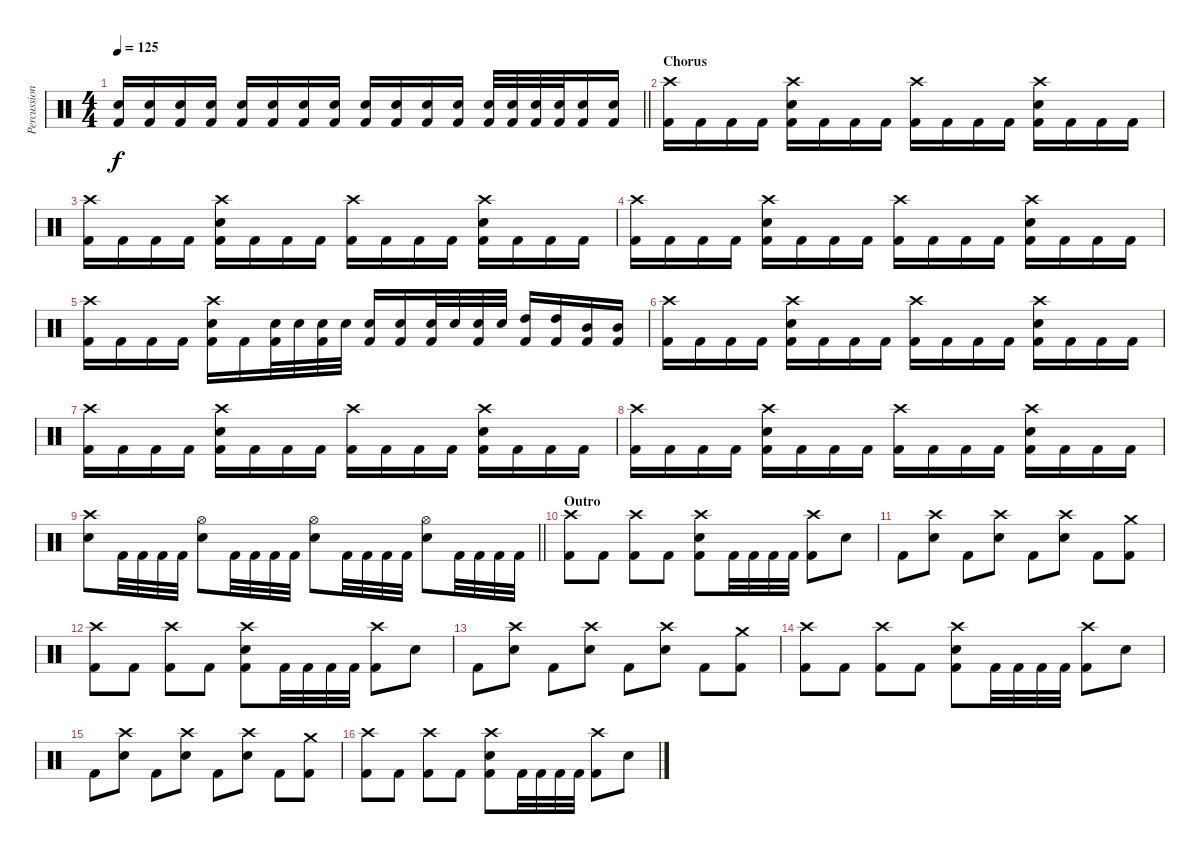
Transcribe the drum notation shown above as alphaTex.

\track ("Percussion" "Percussion") {mute instrument percussion}
\staff {score}
\articulation defaults
\ts (4 4)
\tempo 125
\clef neutral
\barLineRight lightlight
\ks c
("Electric Snare (hit)" "Kick (hit) 2").16{dy f volume 8} ("Electric Snare (hit)" "Kick (hit) 2").16{volume 16} ("Electric Snare (hit)" "Kick (hit) 2").16 ("Electric Snare (hit)" "Kick (hit) 2").16 ("Electric Snare (hit)" "Kick (hit) 2").16 ("Electric Snare (hit)" "Kick (hit) 2").16 ("Electric Snare (hit)" "Kick (hit) 2").16 ("Electric Snare (hit)" "Kick (hit) 2").16 ("Electric Snare (hit)" "Kick (hit) 2").16 ("Electric Snare (hit)" "Kick (hit) 2").16 ("Electric Snare (hit)" "Kick (hit) 2").16 ("Electric Snare (hit)" "Kick (hit) 2").16 ("Electric Snare (hit)" "Kick (hit) 2").32 ("Electric Snare (hit)" "Kick (hit) 2").32 ("Electric Snare (hit)" "Kick (hit) 2").32 ("Electric Snare (hit)" "Kick (hit) 2").32 ("Electric Snare (hit)" "Kick (hit) 2").16 ("Electric Snare (hit)" "Kick (hit) 2").16 |
\section ("" "Chorus")
("Crash high (hit)" "Kick (hit) 2").16{volume 13} "Kick (hit) 2".16 "Kick (hit) 2".16 "Kick (hit) 2".16 ("Crash high (hit)" "Electric Snare (hit)" "Kick (hit) 2").16 "Kick (hit) 2".16 "Kick (hit) 2".16 "Kick (hit) 2".16 ("Crash high (hit)" "Kick (hit) 2").16 "Kick (hit) 2".16 "Kick (hit) 2".16 "Kick (hit) 2".16 ("Crash high (hit)" "Electric Snare (hit)" "Kick (hit) 2").16 "Kick (hit) 2".16 "Kick (hit) 2".16 "Kick (hit) 2".16 |
("Crash high (hit)" "Kick (hit) 2").16 "Kick (hit) 2".16 "Kick (hit) 2".16 "Kick (hit) 2".16 ("Crash high (hit)" "Electric Snare (hit)" "Kick (hit) 2").16 "Kick (hit) 2".16 "Kick (hit) 2".16 "Kick (hit) 2".16 ("Crash high (hit)" "Kick (hit) 2").16 "Kick (hit) 2".16 "Kick (hit) 2".16 "Kick (hit) 2".16 ("Crash high (hit)" "Electric Snare (hit)" "Kick (hit) 2").16 "Kick (hit) 2".16 "Kick (hit) 2".16 "Kick (hit) 2".16 |
("Crash high (hit)" "Kick (hit) 2").16 "Kick (hit) 2".16 "Kick (hit) 2".16 "Kick (hit) 2".16 ("Crash high (hit)" "Electric Snare (hit)" "Kick (hit) 2").16 "Kick (hit) 2".16 "Kick (hit) 2".16 "Kick (hit) 2".16 ("Crash high (hit)" "Kick (hit) 2").16 "Kick (hit) 2".16 "Kick (hit) 2".16 "Kick (hit) 2".16 ("Crash high (hit)" "Electric Snare (hit)" "Kick (hit) 2").16 "Kick (hit) 2".16 "Kick (hit) 2".16 "Kick (hit) 2".16 |
("Crash high (hit)" "Kick (hit) 2").16 "Kick (hit) 2".16 "Kick (hit) 2".16 "Kick (hit) 2".16 ("Crash high (hit)" "Electric Snare (hit)" "Kick (hit) 2").16 "Kick (hit) 2".16 ("Electric Snare (hit)" "Kick (hit) 2").32 "Electric Snare (hit)".32 ("Electric Snare (hit)" "Kick (hit) 2").32 "Electric Snare (hit)".32 ("Electric Snare (hit)" "Kick (hit) 2").16 ("Electric Snare (hit)" "Kick (hit) 2").16 ("Electric Snare (hit)" "Kick (hit) 2").32 "Electric Snare (hit)".32 ("Electric Snare (hit)" "Kick (hit) 2").32 "Electric Snare (hit)".32 ("High Tom (hit)" "Kick (hit) 2").16 ("High Tom (hit)" "Kick (hit) 2").16 ("Mid Tom (hit)" "Kick (hit) 2").16 ("Mid Tom (hit)" "Kick (hit) 2").16 |
("Crash high (hit)" "Kick (hit) 2").16 "Kick (hit) 2".16 "Kick (hit) 2".16 "Kick (hit) 2".16 ("Crash high (hit)" "Electric Snare (hit)" "Kick (hit) 2").16 "Kick (hit) 2".16 "Kick (hit) 2".16 "Kick (hit) 2".16 ("Crash high (hit)" "Kick (hit) 2").16 "Kick (hit) 2".16 "Kick (hit) 2".16 "Kick (hit) 2".16 ("Crash high (hit)" "Electric Snare (hit)" "Kick (hit) 2").16 "Kick (hit) 2".16 "Kick (hit) 2".16 "Kick (hit) 2".16 |
("Crash high (hit)" "Kick (hit) 2").16 "Kick (hit) 2".16 "Kick (hit) 2".16 "Kick (hit) 2".16 ("Crash high (hit)" "Electric Snare (hit)" "Kick (hit) 2").16 "Kick (hit) 2".16 "Kick (hit) 2".16 "Kick (hit) 2".16 ("Crash high (hit)" "Kick (hit) 2").16 "Kick (hit) 2".16 "Kick (hit) 2".16 "Kick (hit) 2".16 ("Crash high (hit)" "Electric Snare (hit)" "Kick (hit) 2").16 "Kick (hit) 2".16 "Kick (hit) 2".16 "Kick (hit) 2".16 |
("Crash high (hit)" "Kick (hit) 2").16 "Kick (hit) 2".16 "Kick (hit) 2".16 "Kick (hit) 2".16 ("Crash high (hit)" "Electric Snare (hit)" "Kick (hit) 2").16 "Kick (hit) 2".16 "Kick (hit) 2".16 "Kick (hit) 2".16 ("Crash high (hit)" "Kick (hit) 2").16 "Kick (hit) 2".16 "Kick (hit) 2".16 "Kick (hit) 2".16 ("Crash high (hit)" "Electric Snare (hit)" "Kick (hit) 2").16 "Kick (hit) 2".16 "Kick (hit) 2".16 "Kick (hit) 2".16 |
\barLineRight lightlight
("Crash high (hit)" "Electric Snare (hit)").8 "Kick (hit) 2".32 "Kick (hit) 2".32 "Kick (hit) 2".32 "Kick (hit) 2".32 ("Hi-Hat (open)" "Electric Snare (hit)").8 "Kick (hit) 2".32 "Kick (hit) 2".32 "Kick (hit) 2".32 "Kick (hit) 2".32 ("Hi-Hat (open)" "Electric Snare (hit)").8 "Kick (hit) 2".32 "Kick (hit) 2".32 "Kick (hit) 2".32 "Kick (hit) 2".32 ("Hi-Hat (open)" "Electric Snare (hit)").8 "Kick (hit) 2".32 "Kick (hit) 2".32 "Kick (hit) 2".32 "Kick (hit) 2".32 |
\section ("" "Outro")
("Crash high (hit)" "Kick (hit) 2").8 "Kick (hit) 2".8 ("Crash high (hit)" "Kick (hit) 2").8 "Kick (hit) 2".8 ("Crash high (hit)" "Electric Snare (hit)" "Kick (hit) 2").8 "Kick (hit) 2".32 "Kick (hit) 2".32 "Kick (hit) 2".32 "Kick (hit) 2".32 ("Crash high (hit)" "Kick (hit) 2").8 "Electric Snare (hit)".8 |
"Kick (hit) 2".8 ("Crash high (hit)" "Electric Snare (hit)").8 "Kick (hit) 2".8 ("Crash high (hit)" "Electric Snare (hit)").8 "Kick (hit) 2".8 ("Crash high (hit)" "Electric Snare (hit)").8 "Kick (hit) 2".8 ("Crash medium (hit)" "Kick (hit) 2").8 |
("Crash high (hit)" "Kick (hit) 2").8 "Kick (hit) 2".8 ("Crash high (hit)" "Kick (hit) 2").8 "Kick (hit) 2".8 ("Crash high (hit)" "Electric Snare (hit)" "Kick (hit) 2").8 "Kick (hit) 2".32 "Kick (hit) 2".32 "Kick (hit) 2".32 "Kick (hit) 2".32 ("Crash high (hit)" "Kick (hit) 2").8 "Electric Snare (hit)".8 |
"Kick (hit) 2".8 ("Crash high (hit)" "Electric Snare (hit)").8 "Kick (hit) 2".8 ("Crash high (hit)" "Electric Snare (hit)").8 "Kick (hit) 2".8 ("Crash high (hit)" "Electric Snare (hit)").8 "Kick (hit) 2".8 ("Crash medium (hit)" "Kick (hit) 2").8 |
("Crash high (hit)" "Kick (hit) 2").8 "Kick (hit) 2".8 ("Crash high (hit)" "Kick (hit) 2").8 "Kick (hit) 2".8 ("Crash high (hit)" "Electric Snare (hit)" "Kick (hit) 2").8 "Kick (hit) 2".32 "Kick (hit) 2".32 "Kick (hit) 2".32 "Kick (hit) 2".32 ("Crash high (hit)" "Kick (hit) 2").8 "Electric Snare (hit)".8 |
"Kick (hit) 2".8 ("Crash high (hit)" "Electric Snare (hit)").8 "Kick (hit) 2".8 ("Crash high (hit)" "Electric Snare (hit)").8 "Kick (hit) 2".8 ("Crash high (hit)" "Electric Snare (hit)").8 "Kick (hit) 2".8 ("Crash medium (hit)" "Kick (hit) 2").8 |
("Crash high (hit)" "Kick (hit) 2").8 "Kick (hit) 2".8 ("Crash high (hit)" "Kick (hit) 2").8 "Kick (hit) 2".8 ("Crash high (hit)" "Electric Snare (hit)" "Kick (hit) 2").8 "Kick (hit) 2".32 "Kick (hit) 2".32 "Kick (hit) 2".32 "Kick (hit) 2".32 ("Crash high (hit)" "Kick (hit) 2").8 "Electric Snare (hit)".8
